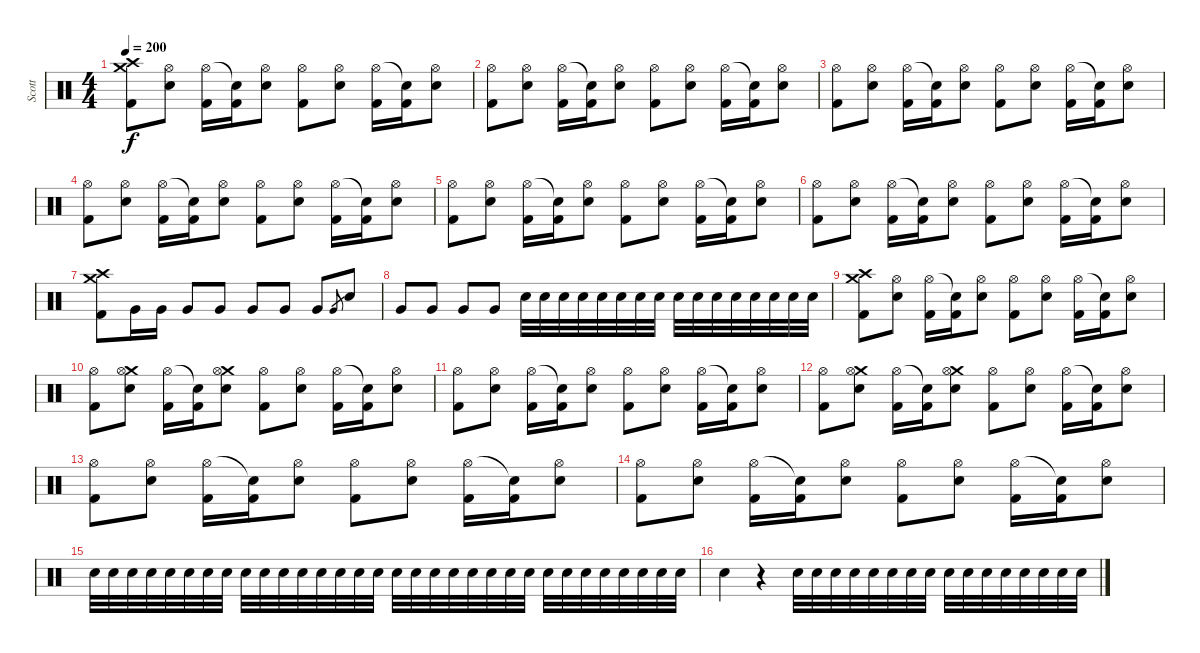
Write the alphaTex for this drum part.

\track ("Scott" "Scott") {instrument percussion}
\staff {score}
\articulation defaults
\ts (4 4)
\tempo 200
\clef neutral
\ks c
("Crash medium (hit)" "Crash high (hit)" "Kick (hit) 2").8{dy f} ("Hi-Hat (open)" "Snare (hit) 2").8 ("Hi-Hat (open)" "Kick (hit) 2").16 ("Snare (hit)"{t} "Kick (hit) 2").16 ("Hi-Hat (open)" "Snare (hit) 2").8 ("Hi-Hat (open)" "Kick (hit) 2").8 ("Hi-Hat (open)" "Snare (hit) 2").8 ("Hi-Hat (open)" "Kick (hit) 2").16 ("Snare (hit)"{t} "Kick (hit) 2").16 ("Hi-Hat (open)" "Snare (hit) 2").8 |
("Hi-Hat (open)" "Kick (hit) 2").8 ("Hi-Hat (open)" "Snare (hit) 2").8 ("Hi-Hat (open)" "Kick (hit) 2").16 ("Snare (hit)"{t} "Kick (hit) 2").16 ("Hi-Hat (open)" "Snare (hit) 2").8 ("Hi-Hat (open)" "Kick (hit) 2").8 ("Hi-Hat (open)" "Snare (hit) 2").8 ("Hi-Hat (open)" "Kick (hit) 2").16 ("Snare (hit)"{t} "Kick (hit) 2").16 ("Hi-Hat (open)" "Snare (hit) 2").8 |
("Hi-Hat (open)" "Kick (hit) 2").8 ("Hi-Hat (open)" "Snare (hit) 2").8 ("Hi-Hat (open)" "Kick (hit) 2").16 ("Snare (hit)"{t} "Kick (hit) 2").16 ("Hi-Hat (open)" "Snare (hit) 2").8 ("Hi-Hat (open)" "Kick (hit) 2").8 ("Hi-Hat (open)" "Snare (hit) 2").8 ("Hi-Hat (open)" "Kick (hit) 2").16 ("Snare (hit)"{t} "Kick (hit) 2").16 ("Hi-Hat (open)" "Snare (hit) 2").8 |
("Hi-Hat (open)" "Kick (hit) 2").8 ("Hi-Hat (open)" "Snare (hit) 2").8 ("Hi-Hat (open)" "Kick (hit) 2").16 ("Snare (hit)"{t} "Kick (hit) 2").16 ("Hi-Hat (open)" "Snare (hit) 2").8 ("Hi-Hat (open)" "Kick (hit) 2").8 ("Hi-Hat (open)" "Snare (hit) 2").8 ("Hi-Hat (open)" "Kick (hit) 2").16 ("Snare (hit)"{t} "Kick (hit) 2").16 ("Hi-Hat (open)" "Snare (hit) 2").8 |
("Hi-Hat (open)" "Kick (hit) 2").8 ("Hi-Hat (open)" "Snare (hit) 2").8 ("Hi-Hat (open)" "Kick (hit) 2").16 ("Snare (hit)"{t} "Kick (hit) 2").16 ("Hi-Hat (open)" "Snare (hit) 2").8 ("Hi-Hat (open)" "Kick (hit) 2").8 ("Hi-Hat (open)" "Snare (hit) 2").8 ("Hi-Hat (open)" "Kick (hit) 2").16 ("Snare (hit)"{t} "Kick (hit) 2").16 ("Hi-Hat (open)" "Snare (hit) 2").8 |
("Hi-Hat (open)" "Kick (hit) 2").8 ("Hi-Hat (open)" "Snare (hit) 2").8 ("Hi-Hat (open)" "Kick (hit) 2").16 ("Snare (hit)"{t} "Kick (hit) 2").16 ("Hi-Hat (open)" "Snare (hit) 2").8 ("Hi-Hat (open)" "Kick (hit) 2").8 ("Hi-Hat (open)" "Snare (hit) 2").8 ("Hi-Hat (open)" "Kick (hit) 2").16 ("Snare (hit)"{t} "Kick (hit) 2").16 ("Hi-Hat (open)" "Snare (hit) 2").8 |
("Crash medium (hit)" "Crash high (hit)" "Kick (hit) 2").8 "Very Low Tom (hit)".16 "Very Low Tom (hit)".16 "Very Low Tom (hit)".8 "Very Low Tom (hit)".8 "Very Low Tom (hit)".8 "Very Low Tom (hit)".8 "Very Low Tom (hit)".8 "Very Low Tom (hit)".8{gr} "Snare (hit) 2".8 |
"Very Low Tom (hit)".8 "Very Low Tom (hit)".8 "Very Low Tom (hit)".8 "Very Low Tom (hit)".8 "Snare (hit) 2".32 "Snare (hit) 2".32 "Snare (hit) 2".32 "Snare (hit) 2".32 "Snare (hit) 2".32 "Snare (hit) 2".32 "Snare (hit) 2".32 "Snare (hit) 2".32 "Snare (hit) 2".32 "Snare (hit) 2".32 "Snare (hit) 2".32 "Snare (hit) 2".32 "Snare (hit) 2".32 "Snare (hit) 2".32 "Snare (hit) 2".32 "Snare (hit) 2".32 |
("Crash medium (hit)" "Crash high (hit)" "Kick (hit) 2").8 ("Hi-Hat (open)" "Snare (hit) 2").8 ("Hi-Hat (open)" "Kick (hit) 2").16 ("Snare (hit)"{t} "Kick (hit) 2").16 ("Hi-Hat (open)" "Snare (hit) 2").8 ("Hi-Hat (open)" "Kick (hit) 2").8 ("Hi-Hat (open)" "Snare (hit) 2").8 ("Hi-Hat (open)" "Kick (hit) 2").16 ("Snare (hit)"{t} "Kick (hit) 2").16 ("Hi-Hat (open)" "Snare (hit) 2").8 |
("Hi-Hat (open)" "Kick (hit) 2").8 ("Crash medium (hit)" "Hi-Hat (open)" "Snare (hit) 2").8 ("Hi-Hat (open)" "Kick (hit) 2").16 ("Snare (hit)"{t} "Kick (hit) 2").16 ("Crash medium (hit)" "Hi-Hat (open)" "Snare (hit) 2").8 ("Hi-Hat (open)" "Kick (hit) 2").8 ("Hi-Hat (open)" "Snare (hit) 2").8 ("Hi-Hat (open)" "Kick (hit) 2").16 ("Snare (hit)"{t} "Kick (hit) 2").16 ("Hi-Hat (open)" "Snare (hit) 2").8 |
("Hi-Hat (open)" "Kick (hit) 2").8 ("Hi-Hat (open)" "Snare (hit) 2").8 ("Hi-Hat (open)" "Kick (hit) 2").16 ("Snare (hit)"{t} "Kick (hit) 2").16 ("Hi-Hat (open)" "Snare (hit) 2").8 ("Hi-Hat (open)" "Kick (hit) 2").8 ("Hi-Hat (open)" "Snare (hit) 2").8 ("Hi-Hat (open)" "Kick (hit) 2").16 ("Snare (hit)"{t} "Kick (hit) 2").16 ("Hi-Hat (open)" "Snare (hit) 2").8 |
("Hi-Hat (open)" "Kick (hit) 2").8 ("Crash medium (hit)" "Hi-Hat (open)" "Snare (hit) 2").8 ("Hi-Hat (open)" "Kick (hit) 2").16 ("Snare (hit)"{t} "Kick (hit) 2").16 ("Crash medium (hit)" "Hi-Hat (open)" "Snare (hit) 2").8 ("Hi-Hat (open)" "Kick (hit) 2").8 ("Hi-Hat (open)" "Snare (hit) 2").8 ("Hi-Hat (open)" "Kick (hit) 2").16 ("Snare (hit)"{t} "Kick (hit) 2").16 ("Hi-Hat (open)" "Snare (hit) 2").8 |
("Hi-Hat (open)" "Kick (hit) 2").8 ("Hi-Hat (open)" "Snare (hit) 2").8 ("Hi-Hat (open)" "Kick (hit) 2").16 ("Snare (hit)"{t} "Kick (hit) 2").16 ("Hi-Hat (open)" "Snare (hit) 2").8 ("Hi-Hat (open)" "Kick (hit) 2").8 ("Hi-Hat (open)" "Snare (hit) 2").8 ("Hi-Hat (open)" "Kick (hit) 2").16 ("Snare (hit)"{t} "Kick (hit) 2").16 ("Hi-Hat (open)" "Snare (hit) 2").8 |
("Hi-Hat (open)" "Kick (hit) 2").8 ("Hi-Hat (open)" "Snare (hit) 2").8 ("Hi-Hat (open)" "Kick (hit) 2").16 ("Snare (hit)"{t} "Kick (hit) 2").16 ("Hi-Hat (open)" "Snare (hit) 2").8 ("Hi-Hat (open)" "Kick (hit) 2").8 ("Hi-Hat (open)" "Snare (hit) 2").8 ("Hi-Hat (open)" "Kick (hit) 2").16 ("Snare (hit)"{t} "Kick (hit) 2").16 ("Hi-Hat (open)" "Snare (hit) 2").8 |
"Snare (hit) 2".32 "Snare (hit) 2".32 "Snare (hit) 2".32 "Snare (hit) 2".32 "Snare (hit) 2".32 "Snare (hit) 2".32 "Snare (hit) 2".32 "Snare (hit) 2".32 "Snare (hit) 2".32 "Snare (hit) 2".32 "Snare (hit) 2".32 "Snare (hit) 2".32 "Snare (hit) 2".32 "Snare (hit) 2".32 "Snare (hit) 2".32 "Snare (hit) 2".32 "Snare (hit) 2".32 "Snare (hit) 2".32 "Snare (hit) 2".32 "Snare (hit) 2".32 "Snare (hit) 2".32 "Snare (hit) 2".32 "Snare (hit) 2".32 "Snare (hit) 2".32 "Snare (hit) 2".32 "Snare (hit) 2".32 "Snare (hit) 2".32 "Snare (hit) 2".32 "Snare (hit) 2".32 "Snare (hit) 2".32 "Snare (hit) 2".32 "Snare (hit) 2".32 |
"Snare (hit) 2".4 r.4 "Snare (hit) 2".32 "Snare (hit) 2".32 "Snare (hit) 2".32 "Snare (hit) 2".32 "Snare (hit) 2".32 "Snare (hit) 2".32 "Snare (hit) 2".32 "Snare (hit) 2".32 "Snare (hit) 2".32 "Snare (hit) 2".32 "Snare (hit) 2".32 "Snare (hit) 2".32 "Snare (hit) 2".32 "Snare (hit) 2".32 "Snare (hit) 2".32 "Snare (hit) 2".32
